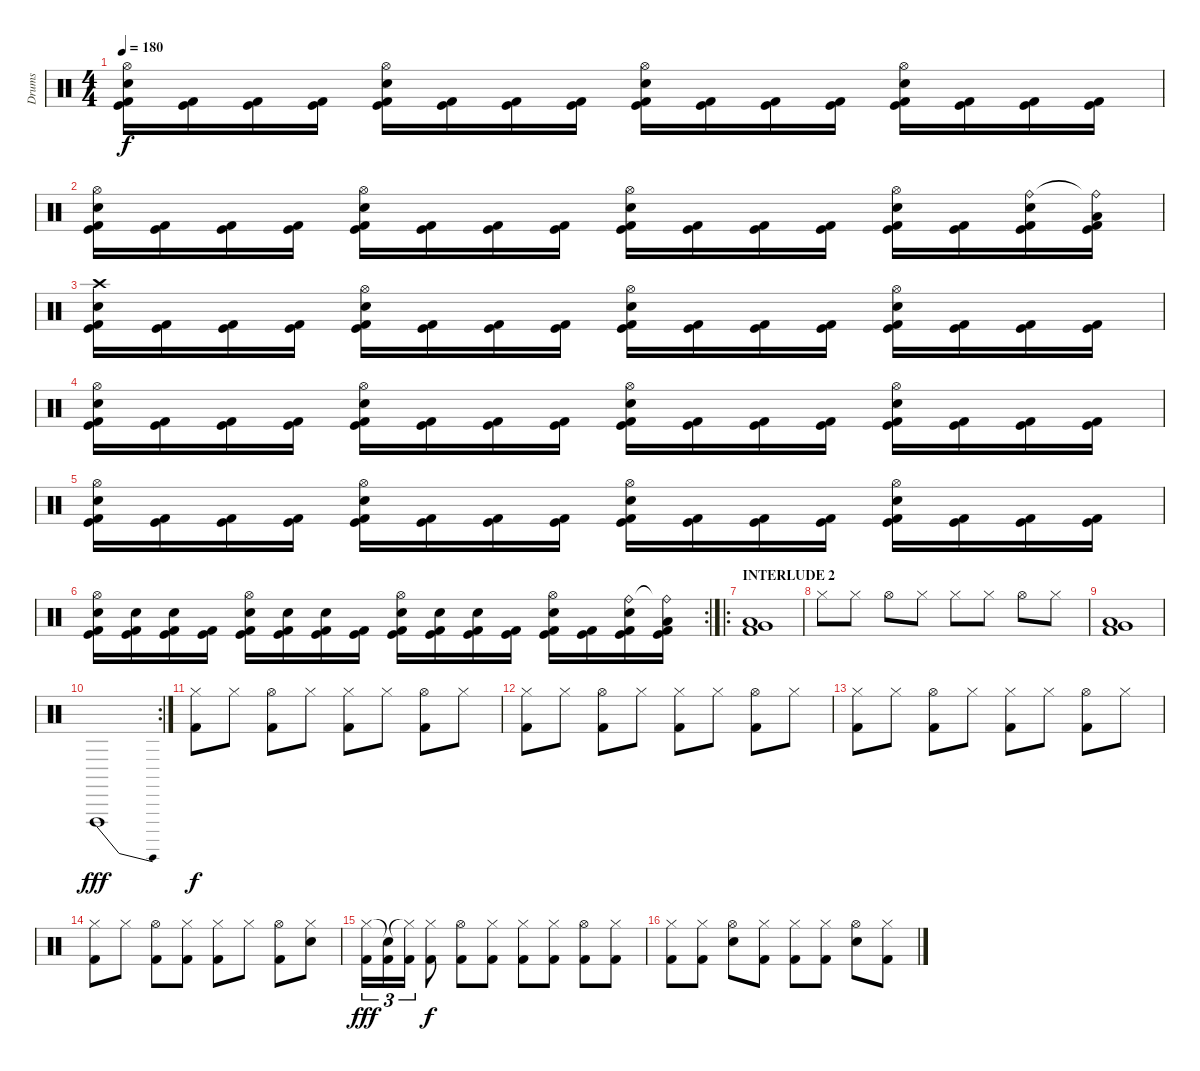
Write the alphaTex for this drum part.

\track ("Drums" "Drums") {instrument percussion}
\staff {score}
\articulation defaults
\ts (4 4)
\tempo 180
\clef neutral
\ks c
("Hi-Hat (open)" "Electric Snare (hit)" "Kick (hit)" "Kick (hit) 2").16{dy f} ("Kick (hit)" "Kick (hit) 2").16 ("Kick (hit)" "Kick (hit) 2").16 ("Kick (hit)" "Kick (hit) 2").16 ("Hi-Hat (open)" "Electric Snare (hit)" "Kick (hit)" "Kick (hit) 2").16 ("Kick (hit)" "Kick (hit) 2").16 ("Kick (hit)" "Kick (hit) 2").16 ("Kick (hit)" "Kick (hit) 2").16 ("Hi-Hat (open)" "Electric Snare (hit)" "Kick (hit)" "Kick (hit) 2").16 ("Kick (hit)" "Kick (hit) 2").16 ("Kick (hit)" "Kick (hit) 2").16 ("Kick (hit)" "Kick (hit) 2").16 ("Hi-Hat (open)" "Electric Snare (hit)" "Kick (hit)" "Kick (hit) 2").16 ("Kick (hit)" "Kick (hit) 2").16 ("Kick (hit)" "Kick (hit) 2").16 ("Kick (hit)" "Kick (hit) 2").16 |
("Hi-Hat (open)" "Electric Snare (hit)" "Kick (hit)" "Kick (hit) 2").16 ("Kick (hit)" "Kick (hit) 2").16 ("Kick (hit)" "Kick (hit) 2").16 ("Kick (hit)" "Kick (hit) 2").16 ("Hi-Hat (open)" "Electric Snare (hit)" "Kick (hit)" "Kick (hit) 2").16 ("Kick (hit)" "Kick (hit) 2").16 ("Kick (hit)" "Kick (hit) 2").16 ("Kick (hit)" "Kick (hit) 2").16 ("Hi-Hat (open)" "Electric Snare (hit)" "Kick (hit)" "Kick (hit) 2").16 ("Kick (hit)" "Kick (hit) 2").16 ("Kick (hit)" "Kick (hit) 2").16 ("Kick (hit)" "Kick (hit) 2").16 ("Hi-Hat (open)" "Electric Snare (hit)" "Kick (hit)" "Kick (hit) 2").16 ("Kick (hit)" "Kick (hit) 2").16 ("Ride (bell)" "Electric Snare (hit)" "Kick (hit)" "Kick (hit) 2").16 ("Ride (bell)"{t} "Low Tom (hit)" "Kick (hit)" "Kick (hit) 2").16 |
("Crash high (hit)" "Electric Snare (hit)" "Kick (hit)" "Kick (hit) 2").16 ("Kick (hit)" "Kick (hit) 2").16 ("Kick (hit)" "Kick (hit) 2").16 ("Kick (hit)" "Kick (hit) 2").16 ("Hi-Hat (open)" "Electric Snare (hit)" "Kick (hit)" "Kick (hit) 2").16 ("Kick (hit)" "Kick (hit) 2").16 ("Kick (hit)" "Kick (hit) 2").16 ("Kick (hit)" "Kick (hit) 2").16 ("Hi-Hat (open)" "Electric Snare (hit)" "Kick (hit)" "Kick (hit) 2").16 ("Kick (hit)" "Kick (hit) 2").16 ("Kick (hit)" "Kick (hit) 2").16 ("Kick (hit)" "Kick (hit) 2").16 ("Hi-Hat (open)" "Electric Snare (hit)" "Kick (hit)" "Kick (hit) 2").16 ("Kick (hit)" "Kick (hit) 2").16 ("Kick (hit)" "Kick (hit) 2").16 ("Kick (hit)" "Kick (hit) 2").16 |
("Hi-Hat (open)" "Electric Snare (hit)" "Kick (hit)" "Kick (hit) 2").16 ("Kick (hit)" "Kick (hit) 2").16 ("Kick (hit)" "Kick (hit) 2").16 ("Kick (hit)" "Kick (hit) 2").16 ("Hi-Hat (open)" "Electric Snare (hit)" "Kick (hit)" "Kick (hit) 2").16 ("Kick (hit)" "Kick (hit) 2").16 ("Kick (hit)" "Kick (hit) 2").16 ("Kick (hit)" "Kick (hit) 2").16 ("Hi-Hat (open)" "Electric Snare (hit)" "Kick (hit)" "Kick (hit) 2").16 ("Kick (hit)" "Kick (hit) 2").16 ("Kick (hit)" "Kick (hit) 2").16 ("Kick (hit)" "Kick (hit) 2").16 ("Hi-Hat (open)" "Electric Snare (hit)" "Kick (hit)" "Kick (hit) 2").16 ("Kick (hit)" "Kick (hit) 2").16 ("Kick (hit)" "Kick (hit) 2").16 ("Kick (hit)" "Kick (hit) 2").16 |
("Hi-Hat (open)" "Electric Snare (hit)" "Kick (hit)" "Kick (hit) 2").16 ("Kick (hit)" "Kick (hit) 2").16 ("Kick (hit)" "Kick (hit) 2").16 ("Kick (hit)" "Kick (hit) 2").16 ("Hi-Hat (open)" "Electric Snare (hit)" "Kick (hit)" "Kick (hit) 2").16 ("Kick (hit)" "Kick (hit) 2").16 ("Kick (hit)" "Kick (hit) 2").16 ("Kick (hit)" "Kick (hit) 2").16 ("Hi-Hat (open)" "Electric Snare (hit)" "Kick (hit)" "Kick (hit) 2").16 ("Kick (hit)" "Kick (hit) 2").16 ("Kick (hit)" "Kick (hit) 2").16 ("Kick (hit)" "Kick (hit) 2").16 ("Hi-Hat (open)" "Electric Snare (hit)" "Kick (hit)" "Kick (hit) 2").16 ("Kick (hit)" "Kick (hit) 2").16 ("Kick (hit)" "Kick (hit) 2").16 ("Kick (hit)" "Kick (hit) 2").16 |
\rc 2
("Hi-Hat (open)" "Electric Snare (hit)" "Kick (hit)" "Kick (hit) 2").16 ("Electric Snare (hit)" "Kick (hit)" "Kick (hit) 2").16 ("Electric Snare (hit)" "Kick (hit)" "Kick (hit) 2").16 ("Kick (hit)" "Kick (hit) 2").16 ("Hi-Hat (open)" "Electric Snare (hit)" "Kick (hit)" "Kick (hit) 2").16 ("Electric Snare (hit)" "Kick (hit)" "Kick (hit) 2").16 ("Electric Snare (hit)" "Kick (hit)" "Kick (hit) 2").16 ("Kick (hit)" "Kick (hit) 2").16 ("Hi-Hat (open)" "Electric Snare (hit)" "Kick (hit)" "Kick (hit) 2").16 ("Electric Snare (hit)" "Kick (hit)" "Kick (hit) 2").16 ("Electric Snare (hit)" "Kick (hit)" "Kick (hit) 2").16 ("Kick (hit)" "Kick (hit) 2").16 ("Hi-Hat (open)" "Electric Snare (hit)" "Kick (hit)" "Kick (hit) 2").16 ("Kick (hit)" "Kick (hit) 2").16 ("Ride (bell)" "Electric Snare (hit)" "Kick (hit)" "Kick (hit) 2").16 ("Ride (bell)"{t} "Low Tom (hit)" "Kick (hit)" "Kick (hit) 2").16 |
\ro
\section ("" "INTERLUDE 2")
("Kick (hit) 2" "Low Tom (hit)" "Very Low Tom (hit)").1 |
"Hi-Hat (closed)".8 "Hi-Hat (closed)".8 "Hi-Hat (open)".8 "Hi-Hat (closed)".8 "Hi-Hat (closed)".8 "Hi-Hat (closed)".8 "Hi-Hat (open)".8 "Hi-Hat (closed)".8 |
("Kick (hit) 2" "Low Floor Tom (hit)" "Very Low Tom (hit)").1 |
\rc 2 "Vibraslap (hit)"{be (bend 0 0 60 12)}.1{dy fff}
|
("Hi-Hat (closed)" "Kick (hit) 2").8{dy f} "Hi-Hat (closed)".8 ("Hi-Hat (open)" "Kick (hit) 2").8 "Hi-Hat (closed)".8 ("Hi-Hat (closed)" "Kick (hit) 2").8 "Hi-Hat (closed)".8 ("Hi-Hat (open)" "Kick (hit) 2").8 "Hi-Hat (closed)".8 |
("Hi-Hat (closed)" "Kick (hit) 2").8 "Hi-Hat (closed)".8 ("Hi-Hat (open)" "Kick (hit) 2").8 "Hi-Hat (closed)".8 ("Hi-Hat (closed)" "Kick (hit) 2").8 "Hi-Hat (closed)".8 ("Hi-Hat (open)" "Kick (hit) 2").8 "Hi-Hat (closed)".8 |
("Hi-Hat (closed)" "Kick (hit) 2").8 "Hi-Hat (closed)".8 ("Hi-Hat (open)" "Kick (hit) 2").8 "Hi-Hat (closed)".8 ("Hi-Hat (closed)" "Kick (hit) 2").8 "Hi-Hat (closed)".8 ("Hi-Hat (open)" "Kick (hit) 2").8 "Hi-Hat (closed)".8 |
("Hi-Hat (closed)" "Kick (hit) 2").8 "Hi-Hat (closed)".8 ("Hi-Hat (open)" "Kick (hit) 2").8 ("Hi-Hat (closed)" "Kick (hit) 2").8 ("Hi-Hat (closed)" "Kick (hit) 2").8 "Hi-Hat (closed)".8 ("Hi-Hat (open)" "Kick (hit) 2").8 ("Hi-Hat (closed)" "Electric Snare (hit)").8 |
("Hi-Hat (closed)" "Kick (hit) 2").16{tu (3 2) dy fff} ("Snare (hit)"{t} "Kick (hit) 2").16{tu (3 2)} ("Hi-Hat (closed)"{t} "Kick (hit) 2").16{tu (3 2)} ("Hi-Hat (closed)" "Kick (hit) 2").8{dy f} ("Hi-Hat (open)" "Kick (hit) 2").8 ("Hi-Hat (closed)" "Kick (hit) 2").8 ("Hi-Hat (closed)" "Kick (hit) 2").8 ("Hi-Hat (closed)" "Kick (hit) 2").8 ("Hi-Hat (open)" "Kick (hit) 2").8 ("Hi-Hat (closed)" "Kick (hit) 2").8 |
("Hi-Hat (closed)" "Kick (hit) 2").8 ("Hi-Hat (closed)" "Kick (hit) 2").8 ("Hi-Hat (open)" "Electric Snare (hit)").8 ("Hi-Hat (closed)" "Kick (hit) 2").8 ("Hi-Hat (closed)" "Kick (hit) 2").8 ("Hi-Hat (closed)" "Kick (hit) 2").8 ("Hi-Hat (open)" "Electric Snare (hit)").8 ("Hi-Hat (closed)" "Kick (hit) 2").8
